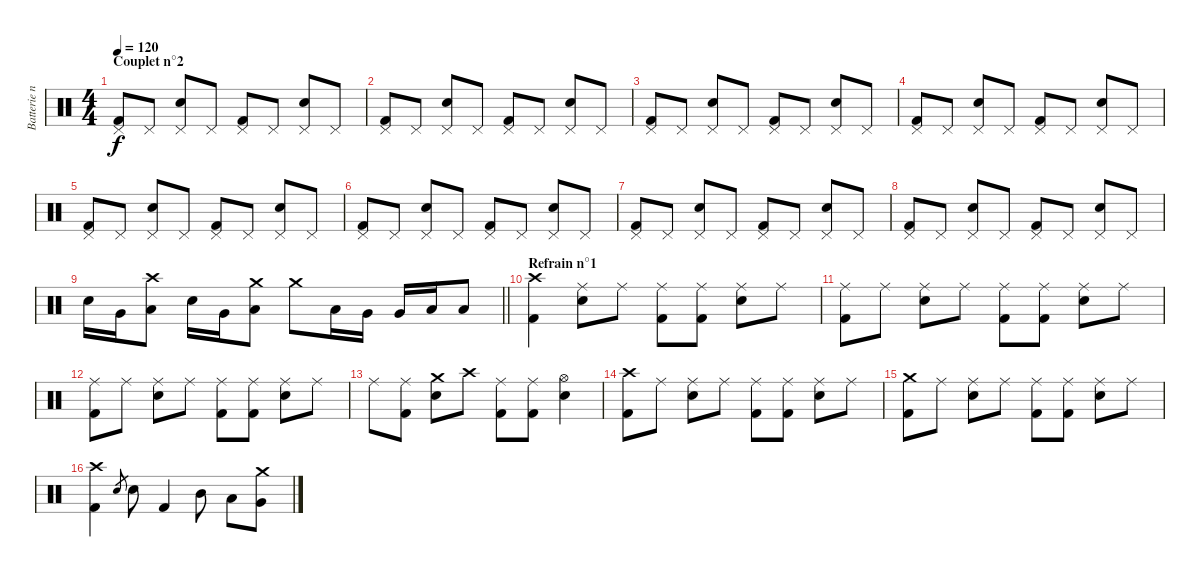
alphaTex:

\track ("Batterie n°3" "Batterie n") {instrument percussion}
\staff {score}
\articulation defaults
\ts (4 4)
\section ("" "Couplet n°2")
\tempo 120
\clef neutral
\ks c
("Pedal Hi-Hat (hit)" "Kick (hit) 2").8{dy f} "Pedal Hi-Hat (hit)".8 ("Pedal Hi-Hat (hit)" "Snare (hit) 2").8 "Pedal Hi-Hat (hit)".8 ("Pedal Hi-Hat (hit)" "Kick (hit) 2").8 "Pedal Hi-Hat (hit)".8 ("Pedal Hi-Hat (hit)" "Snare (hit) 2").8 "Pedal Hi-Hat (hit)".8 |
("Pedal Hi-Hat (hit)" "Kick (hit) 2").8 "Pedal Hi-Hat (hit)".8 ("Pedal Hi-Hat (hit)" "Snare (hit) 2").8 "Pedal Hi-Hat (hit)".8 ("Pedal Hi-Hat (hit)" "Kick (hit) 2").8 "Pedal Hi-Hat (hit)".8 ("Pedal Hi-Hat (hit)" "Snare (hit) 2").8 "Pedal Hi-Hat (hit)".8 |
("Pedal Hi-Hat (hit)" "Kick (hit) 2").8 "Pedal Hi-Hat (hit)".8 ("Pedal Hi-Hat (hit)" "Snare (hit) 2").8 "Pedal Hi-Hat (hit)".8 ("Pedal Hi-Hat (hit)" "Kick (hit) 2").8 "Pedal Hi-Hat (hit)".8 ("Pedal Hi-Hat (hit)" "Snare (hit) 2").8 "Pedal Hi-Hat (hit)".8 |
("Pedal Hi-Hat (hit)" "Kick (hit) 2").8 "Pedal Hi-Hat (hit)".8 ("Pedal Hi-Hat (hit)" "Snare (hit) 2").8 "Pedal Hi-Hat (hit)".8 ("Pedal Hi-Hat (hit)" "Kick (hit) 2").8 "Pedal Hi-Hat (hit)".8 ("Pedal Hi-Hat (hit)" "Snare (hit) 2").8 "Pedal Hi-Hat (hit)".8 |
("Pedal Hi-Hat (hit)" "Kick (hit) 2").8 "Pedal Hi-Hat (hit)".8 ("Pedal Hi-Hat (hit)" "Snare (hit) 2").8 "Pedal Hi-Hat (hit)".8 ("Pedal Hi-Hat (hit)" "Kick (hit) 2").8 "Pedal Hi-Hat (hit)".8 ("Pedal Hi-Hat (hit)" "Snare (hit) 2").8 "Pedal Hi-Hat (hit)".8 |
("Pedal Hi-Hat (hit)" "Kick (hit) 2").8 "Pedal Hi-Hat (hit)".8 ("Pedal Hi-Hat (hit)" "Snare (hit) 2").8 "Pedal Hi-Hat (hit)".8 ("Pedal Hi-Hat (hit)" "Kick (hit) 2").8 "Pedal Hi-Hat (hit)".8 ("Pedal Hi-Hat (hit)" "Snare (hit) 2").8 "Pedal Hi-Hat (hit)".8 |
("Pedal Hi-Hat (hit)" "Kick (hit) 2").8 "Pedal Hi-Hat (hit)".8 ("Pedal Hi-Hat (hit)" "Snare (hit) 2").8 "Pedal Hi-Hat (hit)".8 ("Pedal Hi-Hat (hit)" "Kick (hit) 2").8 "Pedal Hi-Hat (hit)".8 ("Pedal Hi-Hat (hit)" "Snare (hit) 2").8 "Pedal Hi-Hat (hit)".8 |
("Pedal Hi-Hat (hit)" "Kick (hit) 2").8 "Pedal Hi-Hat (hit)".8 ("Pedal Hi-Hat (hit)" "Snare (hit) 2").8 "Pedal Hi-Hat (hit)".8 ("Pedal Hi-Hat (hit)" "Kick (hit) 2").8 "Pedal Hi-Hat (hit)".8 ("Pedal Hi-Hat (hit)" "Snare (hit) 2").8 "Pedal Hi-Hat (hit)".8 |
\barLineRight lightlight "Snare (hit) 2".16 "Very Low Tom (hit)".16
("Crash high (hit)" "Low Tom (hit)").8 "Snare (hit) 2".16 "Very Low Tom (hit)".16 ("Crash medium (hit)" "Low Tom (hit)").8 "Crash medium (hit)".8 "Low Tom (hit)".16 "Very Low Tom (hit)".16 "Very Low Tom (hit)".16 "Low Floor Tom (hit)".16 "Low Floor Tom (hit)".8 |
\section ("" "Refrain n°1")
("Crash high (hit)" "Kick (hit) 2").4 ("Ride (middle)" "Snare (hit) 2").8 "Ride (middle)".8 ("Ride (middle)" "Kick (hit) 2").8 ("Ride (middle)" "Kick (hit) 2").8 ("Ride (middle)" "Snare (hit) 2").8 "Ride (middle)".8 |
("Ride (middle)" "Kick (hit) 2").8 "Ride (middle)".8 ("Ride (middle)" "Snare (hit) 2").8 "Ride (middle)".8 ("Ride (middle)" "Kick (hit) 2").8 ("Ride (middle)" "Kick (hit) 2").8 ("Ride (middle)" "Snare (hit) 2").8 "Ride (middle)".8 |
("Ride (middle)" "Kick (hit) 2").8 "Ride (middle)".8 ("Ride (middle)" "Snare (hit) 2").8 "Ride (middle)".8 ("Ride (middle)" "Kick (hit) 2").8 ("Ride (middle)" "Kick (hit) 2").8 ("Ride (middle)" "Snare (hit) 2").8 "Ride (middle)".8 |
"Ride (middle)".8 ("Ride (middle)" "Kick (hit) 2").8 ("Crash medium (hit)" "Snare (hit) 2").8 "Crash high (hit)".8 ("Ride (middle)" "Kick (hit) 2").8 ("Ride (middle)" "Kick (hit) 2").8 ("Hi-Hat (open)" "Snare (hit) 2").4 |
("Crash high (hit)" "Kick (hit) 2").8 "Ride (middle)".8 ("Ride (middle)" "Snare (hit) 2").8 "Ride (middle)".8 ("Ride (middle)" "Kick (hit) 2").8 ("Ride (middle)" "Kick (hit) 2").8 ("Ride (middle)" "Snare (hit) 2").8 "Ride (middle)".8 |
("Crash medium (hit)" "Kick (hit) 2").8 "Ride (middle)".8 ("Ride (middle)" "Snare (hit) 2").8 "Ride (middle)".8 ("Ride (middle)" "Kick (hit) 2").8 ("Ride (middle)" "Kick (hit) 2").8 ("Ride (middle)" "Snare (hit) 2").8 "Ride (middle)".8 |
("Crash high (hit)" "Kick (hit) 2").4 "Electric Snare (hit)".8{gr} "Snare (hit) 2".8 "Kick (hit) 2".4 "Mid Tom (hit)".8 "Low Tom (hit)".8 ("Crash medium (hit)" "Very Low Tom (hit)").8
